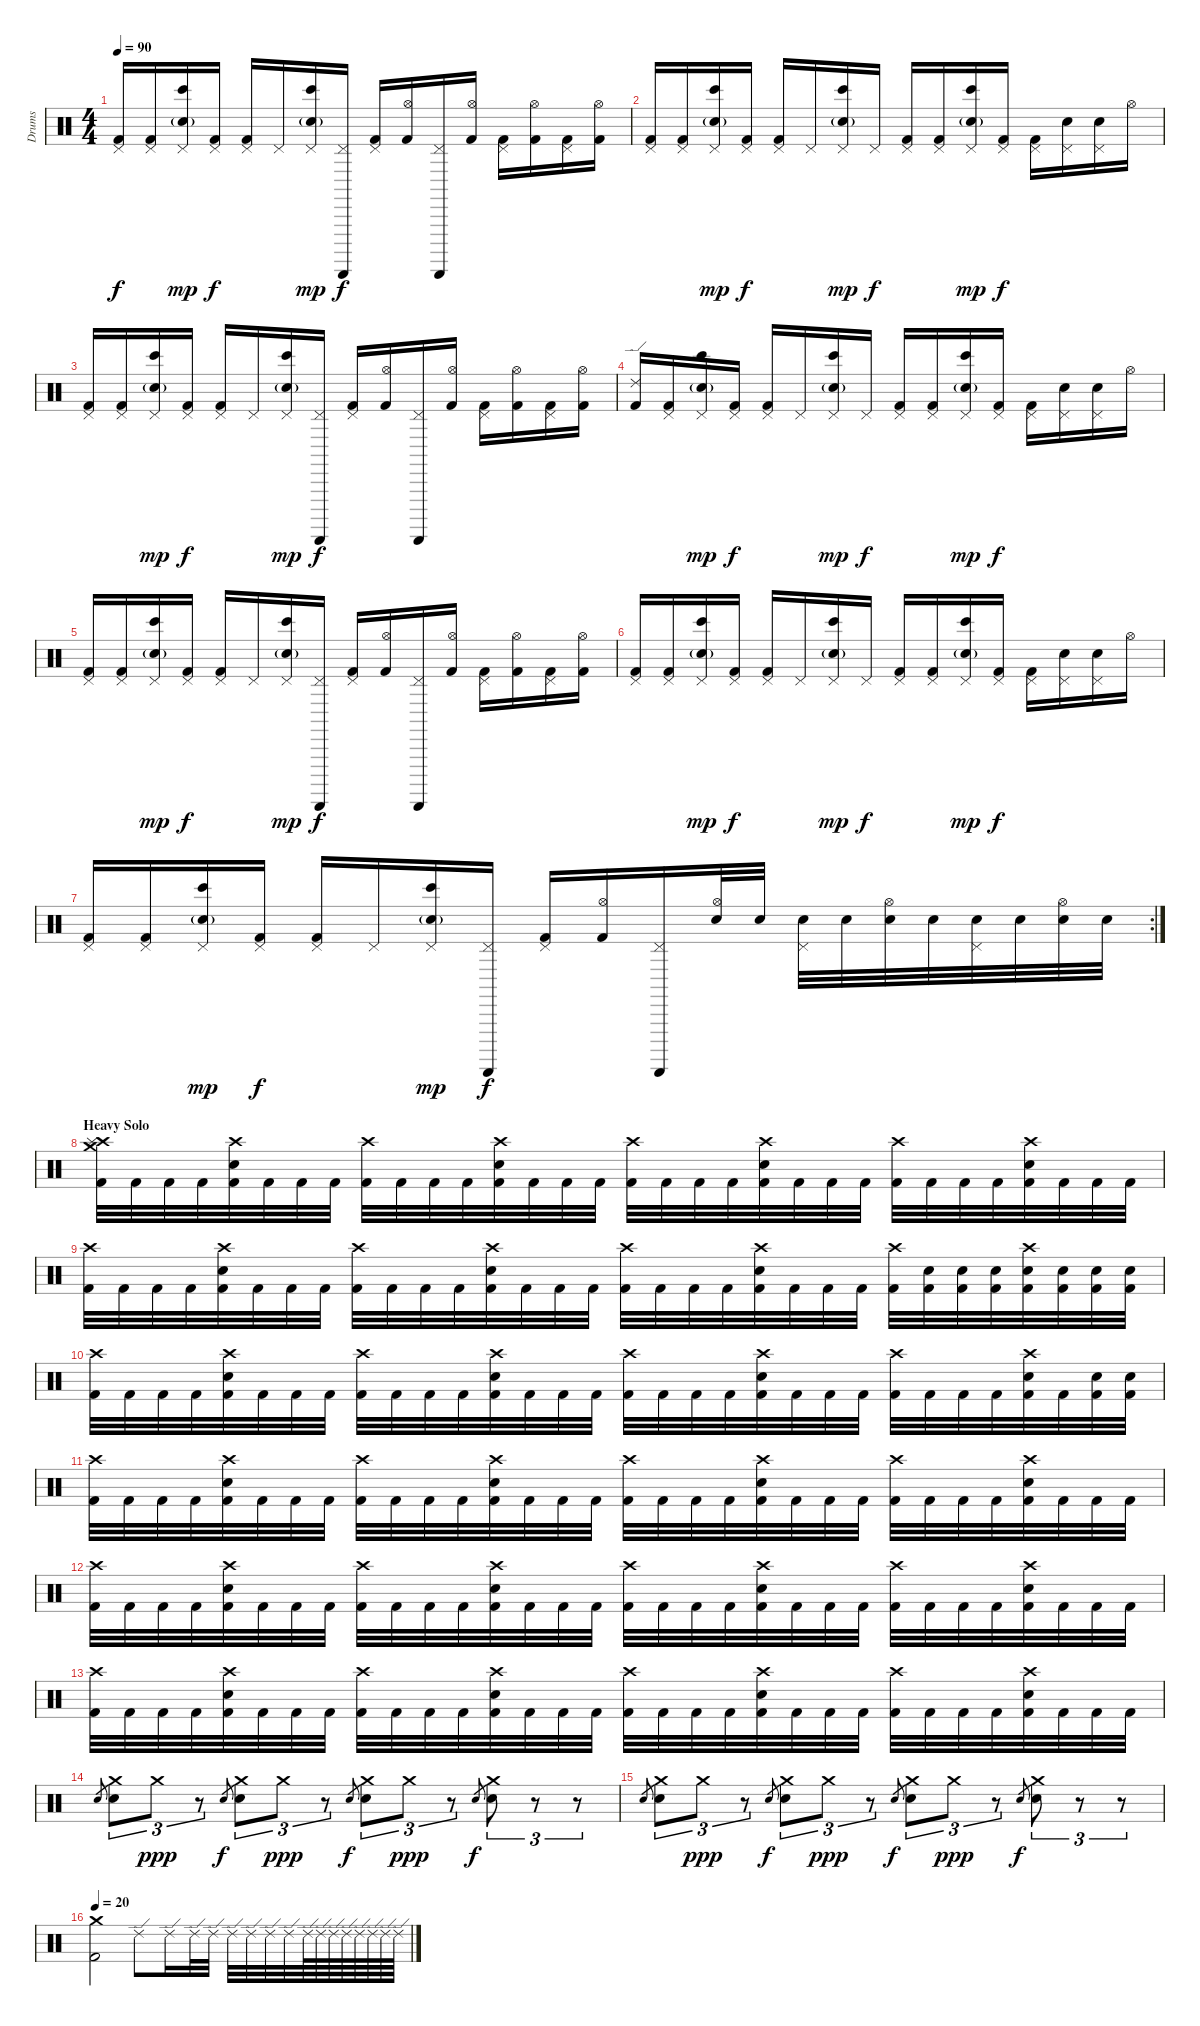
\track ("Drums" "Drums") {instrument percussion}
\staff {score}
\articulation defaults
\ts (4 4)
\tempo 90
\clef neutral
\ks c
("Pedal Hi-Hat (hit)" "Kick (hit) 2").16{dy f} ("Pedal Hi-Hat (hit)" "Kick (hit) 2").16 ("Pedal Hi-Hat (hit)" "Bongo High (hit)" "Electric Snare (hit)"{g}).16{dy mp} ("Pedal Hi-Hat (hit)" "Kick (hit) 2").16{dy f} ("Pedal Hi-Hat (hit)" "Kick (hit) 2").16 "Pedal Hi-Hat (hit)".16 ("Pedal Hi-Hat (hit)" "Bongo High (hit)" "Electric Snare (hit)"{g}).16{dy mp} ("Pedal Hi-Hat (hit)" "Guiro (scrap-return)").16{dy f} ("Pedal Hi-Hat (hit)" "Kick (hit) 2").16 ("Hi-Hat (open)" "Kick (hit) 2").16 ("Pedal Hi-Hat (hit)" "Guiro (scrap-return)").16 ("Hi-Hat (open)" "Kick (hit) 2").16 ("Pedal Hi-Hat (hit)" "Kick (hit) 2").16 ("Hi-Hat (open)" "Kick (hit) 2").16 ("Pedal Hi-Hat (hit)" "Kick (hit) 2").16 ("Hi-Hat (open)" "Kick (hit) 2").16 |
("Pedal Hi-Hat (hit)" "Kick (hit) 2").16 ("Pedal Hi-Hat (hit)" "Kick (hit) 2").16 ("Pedal Hi-Hat (hit)" "Bongo High (hit)" "Electric Snare (hit)"{g}).16{dy mp} ("Pedal Hi-Hat (hit)" "Kick (hit) 2").16{dy f} ("Pedal Hi-Hat (hit)" "Kick (hit) 2").16 "Pedal Hi-Hat (hit)".16 ("Pedal Hi-Hat (hit)" "Bongo High (hit)" "Electric Snare (hit)"{g}).16{dy mp} "Pedal Hi-Hat (hit)".16{dy f} ("Pedal Hi-Hat (hit)" "Kick (hit) 2").16 ("Pedal Hi-Hat (hit)" "Kick (hit) 2").16 ("Pedal Hi-Hat (hit)" "Bongo High (hit)" "Electric Snare (hit)"{g}).16{dy mp} ("Pedal Hi-Hat (hit)" "Kick (hit) 2").16{dy f} ("Pedal Hi-Hat (hit)" "Kick (hit) 2").16 ("Pedal Hi-Hat (hit)" "Electric Snare (hit)").16 ("Pedal Hi-Hat (hit)" "Electric Snare (hit)").16 "Hi-Hat (open)".16 |
("Pedal Hi-Hat (hit)" "Kick (hit) 2").16 ("Pedal Hi-Hat (hit)" "Kick (hit) 2").16 ("Pedal Hi-Hat (hit)" "Bongo High (hit)" "Electric Snare (hit)"{g}).16{dy mp} ("Pedal Hi-Hat (hit)" "Kick (hit) 2").16{dy f} ("Pedal Hi-Hat (hit)" "Kick (hit) 2").16 "Pedal Hi-Hat (hit)".16 ("Pedal Hi-Hat (hit)" "Bongo High (hit)" "Electric Snare (hit)"{g}).16{dy mp} ("Pedal Hi-Hat (hit)" "Guiro (scrap-return)").16{dy f} ("Pedal Hi-Hat (hit)" "Kick (hit) 2").16 ("Hi-Hat (open)" "Kick (hit) 2").16 ("Pedal Hi-Hat (hit)" "Guiro (scrap-return)").16 ("Hi-Hat (open)" "Kick (hit) 2").16 ("Pedal Hi-Hat (hit)" "Kick (hit) 2").16 ("Hi-Hat (open)" "Kick (hit) 2").16 ("Pedal Hi-Hat (hit)" "Kick (hit) 2").16 ("Hi-Hat (open)" "Kick (hit) 2").16 |
("Ride (edge) 2" "Kick (hit) 2").16 ("Pedal Hi-Hat (hit)" "Kick (hit) 2").16 ("Pedal Hi-Hat (hit)" "Bongo High (hit)" "Electric Snare (hit)"{g}).16{dy mp} ("Pedal Hi-Hat (hit)" "Kick (hit) 2").16{dy f} ("Pedal Hi-Hat (hit)" "Kick (hit) 2").16 "Pedal Hi-Hat (hit)".16 ("Pedal Hi-Hat (hit)" "Bongo High (hit)" "Electric Snare (hit)"{g}).16{dy mp} "Pedal Hi-Hat (hit)".16{dy f} ("Pedal Hi-Hat (hit)" "Kick (hit) 2").16 ("Pedal Hi-Hat (hit)" "Kick (hit) 2").16 ("Pedal Hi-Hat (hit)" "Bongo High (hit)" "Electric Snare (hit)"{g}).16{dy mp} ("Pedal Hi-Hat (hit)" "Kick (hit) 2").16{dy f} ("Pedal Hi-Hat (hit)" "Kick (hit) 2").16 ("Pedal Hi-Hat (hit)" "Electric Snare (hit)").16 ("Pedal Hi-Hat (hit)" "Electric Snare (hit)").16 "Hi-Hat (open)".16 |
("Pedal Hi-Hat (hit)" "Kick (hit) 2").16 ("Pedal Hi-Hat (hit)" "Kick (hit) 2").16 ("Pedal Hi-Hat (hit)" "Bongo High (hit)" "Electric Snare (hit)"{g}).16{dy mp} ("Pedal Hi-Hat (hit)" "Kick (hit) 2").16{dy f} ("Pedal Hi-Hat (hit)" "Kick (hit) 2").16 "Pedal Hi-Hat (hit)".16 ("Pedal Hi-Hat (hit)" "Bongo High (hit)" "Electric Snare (hit)"{g}).16{dy mp} ("Pedal Hi-Hat (hit)" "Guiro (scrap-return)").16{dy f} ("Pedal Hi-Hat (hit)" "Kick (hit) 2").16 ("Hi-Hat (open)" "Kick (hit) 2").16 ("Pedal Hi-Hat (hit)" "Guiro (scrap-return)").16 ("Hi-Hat (open)" "Kick (hit) 2").16 ("Pedal Hi-Hat (hit)" "Kick (hit) 2").16 ("Hi-Hat (open)" "Kick (hit) 2").16 ("Pedal Hi-Hat (hit)" "Kick (hit) 2").16 ("Hi-Hat (open)" "Kick (hit) 2").16 |
("Pedal Hi-Hat (hit)" "Kick (hit) 2").16 ("Pedal Hi-Hat (hit)" "Kick (hit) 2").16 ("Pedal Hi-Hat (hit)" "Bongo High (hit)" "Electric Snare (hit)"{g}).16{dy mp} ("Pedal Hi-Hat (hit)" "Kick (hit) 2").16{dy f} ("Pedal Hi-Hat (hit)" "Kick (hit) 2").16 "Pedal Hi-Hat (hit)".16 ("Pedal Hi-Hat (hit)" "Bongo High (hit)" "Electric Snare (hit)"{g}).16{dy mp} "Pedal Hi-Hat (hit)".16{dy f} ("Pedal Hi-Hat (hit)" "Kick (hit) 2").16 ("Pedal Hi-Hat (hit)" "Kick (hit) 2").16 ("Pedal Hi-Hat (hit)" "Bongo High (hit)" "Electric Snare (hit)"{g}).16{dy mp} ("Pedal Hi-Hat (hit)" "Kick (hit) 2").16{dy f} ("Pedal Hi-Hat (hit)" "Kick (hit) 2").16 ("Pedal Hi-Hat (hit)" "Electric Snare (hit)").16 ("Pedal Hi-Hat (hit)" "Electric Snare (hit)").16 "Hi-Hat (open)".16 |
\rc 2
("Pedal Hi-Hat (hit)" "Kick (hit) 2").16 ("Pedal Hi-Hat (hit)" "Kick (hit) 2").16 ("Pedal Hi-Hat (hit)" "Bongo High (hit)" "Electric Snare (hit)"{g}).16{dy mp} ("Pedal Hi-Hat (hit)" "Kick (hit) 2").16{dy f} ("Pedal Hi-Hat (hit)" "Kick (hit) 2").16 "Pedal Hi-Hat (hit)".16 ("Pedal Hi-Hat (hit)" "Bongo High (hit)" "Electric Snare (hit)"{g}).16{dy mp} ("Pedal Hi-Hat (hit)" "Guiro (scrap-return)").16{dy f} ("Pedal Hi-Hat (hit)" "Kick (hit) 2").16 ("Hi-Hat (open)" "Kick (hit) 2").16 ("Pedal Hi-Hat (hit)" "Guiro (scrap-return)").16 ("Hi-Hat (open)" "Electric Snare (hit)").32 "Electric Snare (hit)".32 ("Pedal Hi-Hat (hit)" "Electric Snare (hit)").32 "Electric Snare (hit)".32 ("Hi-Hat (open)" "Electric Snare (hit)").32 "Electric Snare (hit)".32 ("Pedal Hi-Hat (hit)" "Electric Snare (hit)").32 "Electric Snare (hit)".32 ("Hi-Hat (open)" "Electric Snare (hit)").32 "Electric Snare (hit)".32 |
\section ("" "Heavy Solo")
("Crash high (hit)" "Crash medium (hit)" "Splash (hit)" "Kick (hit) 2").32 "Kick (hit) 2".32 "Kick (hit) 2".32 "Kick (hit) 2".32 ("Crash high (hit)" "Electric Snare (hit)" "Kick (hit) 2").32 "Kick (hit) 2".32 "Kick (hit) 2".32 "Kick (hit) 2".32 ("Crash high (hit)" "Kick (hit) 2").32 "Kick (hit) 2".32 "Kick (hit) 2".32 "Kick (hit) 2".32 ("Crash high (hit)" "Electric Snare (hit)" "Kick (hit) 2").32 "Kick (hit) 2".32 "Kick (hit) 2".32 "Kick (hit) 2".32 ("Crash high (hit)" "Kick (hit) 2").32 "Kick (hit) 2".32 "Kick (hit) 2".32 "Kick (hit) 2".32 ("Crash high (hit)" "Electric Snare (hit)" "Kick (hit) 2").32 "Kick (hit) 2".32 "Kick (hit) 2".32 "Kick (hit) 2".32 ("Crash high (hit)" "Kick (hit) 2").32 "Kick (hit) 2".32 "Kick (hit) 2".32 "Kick (hit) 2".32 ("Crash high (hit)" "Electric Snare (hit)" "Kick (hit) 2").32 "Kick (hit) 2".32 "Kick (hit) 2".32 "Kick (hit) 2".32 |
("Crash high (hit)" "Kick (hit) 2").32 "Kick (hit) 2".32 "Kick (hit) 2".32 "Kick (hit) 2".32 ("Crash high (hit)" "Electric Snare (hit)" "Kick (hit) 2").32 "Kick (hit) 2".32 "Kick (hit) 2".32 "Kick (hit) 2".32 ("Crash high (hit)" "Kick (hit) 2").32 "Kick (hit) 2".32 "Kick (hit) 2".32 "Kick (hit) 2".32 ("Crash high (hit)" "Electric Snare (hit)" "Kick (hit) 2").32 "Kick (hit) 2".32 "Kick (hit) 2".32 "Kick (hit) 2".32 ("Crash high (hit)" "Kick (hit) 2").32 "Kick (hit) 2".32 "Kick (hit) 2".32 "Kick (hit) 2".32 ("Crash high (hit)" "Electric Snare (hit)" "Kick (hit) 2").32 "Kick (hit) 2".32 "Kick (hit) 2".32 "Kick (hit) 2".32 ("Crash high (hit)" "Kick (hit) 2").32 ("Electric Snare (hit)" "Kick (hit) 2").32 ("Electric Snare (hit)" "Kick (hit) 2").32 ("Electric Snare (hit)" "Kick (hit) 2").32 ("Crash high (hit)" "Electric Snare (hit)" "Kick (hit) 2").32 ("Electric Snare (hit)" "Kick (hit) 2").32 ("Electric Snare (hit)" "Kick (hit) 2").32 ("Electric Snare (hit)" "Kick (hit) 2").32 |
("Crash high (hit)" "Kick (hit) 2").32 "Kick (hit) 2".32 "Kick (hit) 2".32 "Kick (hit) 2".32 ("Crash high (hit)" "Electric Snare (hit)" "Kick (hit) 2").32 "Kick (hit) 2".32 "Kick (hit) 2".32 "Kick (hit) 2".32 ("Crash high (hit)" "Kick (hit) 2").32 "Kick (hit) 2".32 "Kick (hit) 2".32 "Kick (hit) 2".32 ("Crash high (hit)" "Electric Snare (hit)" "Kick (hit) 2").32 "Kick (hit) 2".32 "Kick (hit) 2".32 "Kick (hit) 2".32 ("Crash high (hit)" "Kick (hit) 2").32 "Kick (hit) 2".32 "Kick (hit) 2".32 "Kick (hit) 2".32 ("Crash high (hit)" "Electric Snare (hit)" "Kick (hit) 2").32 "Kick (hit) 2".32 "Kick (hit) 2".32 "Kick (hit) 2".32 ("Crash high (hit)" "Kick (hit) 2").32 "Kick (hit) 2".32 "Kick (hit) 2".32 "Kick (hit) 2".32 ("Crash high (hit)" "Electric Snare (hit)" "Kick (hit) 2").32 "Kick (hit) 2".32 ("Electric Snare (hit)" "Kick (hit) 2").32 ("Electric Snare (hit)" "Kick (hit) 2").32 |
("Crash high (hit)" "Kick (hit) 2").32 "Kick (hit) 2".32 "Kick (hit) 2".32 "Kick (hit) 2".32 ("Crash high (hit)" "Electric Snare (hit)" "Kick (hit) 2").32 "Kick (hit) 2".32 "Kick (hit) 2".32 "Kick (hit) 2".32 ("Crash high (hit)" "Kick (hit) 2").32 "Kick (hit) 2".32 "Kick (hit) 2".32 "Kick (hit) 2".32 ("Crash high (hit)" "Electric Snare (hit)" "Kick (hit) 2").32 "Kick (hit) 2".32 "Kick (hit) 2".32 "Kick (hit) 2".32 ("Crash high (hit)" "Kick (hit) 2").32 "Kick (hit) 2".32 "Kick (hit) 2".32 "Kick (hit) 2".32 ("Crash high (hit)" "Electric Snare (hit)" "Kick (hit) 2").32 "Kick (hit) 2".32 "Kick (hit) 2".32 "Kick (hit) 2".32 ("Crash high (hit)" "Kick (hit) 2").32 "Kick (hit) 2".32 "Kick (hit) 2".32 "Kick (hit) 2".32 ("Crash high (hit)" "Electric Snare (hit)" "Kick (hit) 2").32 "Kick (hit) 2".32 "Kick (hit) 2".32 "Kick (hit) 2".32 |
("Crash high (hit)" "Kick (hit) 2").32 "Kick (hit) 2".32 "Kick (hit) 2".32 "Kick (hit) 2".32 ("Crash high (hit)" "Electric Snare (hit)" "Kick (hit) 2").32 "Kick (hit) 2".32 "Kick (hit) 2".32 "Kick (hit) 2".32 ("Crash high (hit)" "Kick (hit) 2").32 "Kick (hit) 2".32 "Kick (hit) 2".32 "Kick (hit) 2".32 ("Crash high (hit)" "Electric Snare (hit)" "Kick (hit) 2").32 "Kick (hit) 2".32 "Kick (hit) 2".32 "Kick (hit) 2".32 ("Crash high (hit)" "Kick (hit) 2").32 "Kick (hit) 2".32 "Kick (hit) 2".32 "Kick (hit) 2".32 ("Crash high (hit)" "Electric Snare (hit)" "Kick (hit) 2").32 "Kick (hit) 2".32 "Kick (hit) 2".32 "Kick (hit) 2".32 ("Crash high (hit)" "Kick (hit) 2").32 "Kick (hit) 2".32 "Kick (hit) 2".32 "Kick (hit) 2".32 ("Crash high (hit)" "Electric Snare (hit)" "Kick (hit) 2").32 "Kick (hit) 2".32 "Kick (hit) 2".32 "Kick (hit) 2".32 |
("Crash high (hit)" "Kick (hit) 2").32 "Kick (hit) 2".32 "Kick (hit) 2".32 "Kick (hit) 2".32 ("Crash high (hit)" "Electric Snare (hit)" "Kick (hit) 2").32 "Kick (hit) 2".32 "Kick (hit) 2".32 "Kick (hit) 2".32 ("Crash high (hit)" "Kick (hit) 2").32 "Kick (hit) 2".32 "Kick (hit) 2".32 "Kick (hit) 2".32 ("Crash high (hit)" "Electric Snare (hit)" "Kick (hit) 2").32 "Kick (hit) 2".32 "Kick (hit) 2".32 "Kick (hit) 2".32 ("Crash high (hit)" "Kick (hit) 2").32 "Kick (hit) 2".32 "Kick (hit) 2".32 "Kick (hit) 2".32 ("Crash high (hit)" "Electric Snare (hit)" "Kick (hit) 2").32 "Kick (hit) 2".32 "Kick (hit) 2".32 "Kick (hit) 2".32 ("Crash high (hit)" "Kick (hit) 2").32 "Kick (hit) 2".32 "Kick (hit) 2".32 "Kick (hit) 2".32 ("Crash high (hit)" "Electric Snare (hit)" "Kick (hit) 2").32 "Kick (hit) 2".32 "Kick (hit) 2".32 "Kick (hit) 2".32 |
"Electric Snare (hit)".8{gr} ("Crash medium (hit)" "Electric Snare (hit)").8{tu (3 2)} "Crash medium (hit)".8{tu (3 2) dy ppp} r.8{tu (3 2)} "Electric Snare (hit)".8{gr dy f} ("Crash medium (hit)" "Electric Snare (hit)").8{tu (3 2)} "Crash medium (hit)".8{tu (3 2) dy ppp} r.8{tu (3 2)} "Electric Snare (hit)".8{gr dy f} ("Crash medium (hit)" "Electric Snare (hit)").8{tu (3 2)} "Crash medium (hit)".8{tu (3 2) dy ppp} r.8{tu (3 2)} "Electric Snare (hit)".8{gr dy f} ("Crash medium (hit)" "Electric Snare (hit)").8{tu (3 2)} r.8{tu (3 2)} r.8{tu (3 2)} |
"Electric Snare (hit)".8{gr} ("Crash medium (hit)" "Electric Snare (hit)").8{tu (3 2)} "Crash medium (hit)".8{tu (3 2) dy ppp} r.8{tu (3 2)} "Electric Snare (hit)".8{gr dy f} ("Crash medium (hit)" "Electric Snare (hit)").8{tu (3 2)} "Crash medium (hit)".8{tu (3 2) dy ppp} r.8{tu (3 2)} "Electric Snare (hit)".8{gr dy f} ("Crash medium (hit)" "Electric Snare (hit)").8{tu (3 2)} "Crash medium (hit)".8{tu (3 2) dy ppp} r.8{tu (3 2)} "Electric Snare (hit)".8{gr dy f} ("Crash medium (hit)" "Electric Snare (hit)").8{tu (3 2)} r.8{tu (3 2)} r.8{tu (3 2)} |
\tempo 20
("Crash medium (hit)" "Kick (hit) 2").2 "Ride (edge) 2".8 "Ride (edge) 2".16 "Ride (edge) 2".32 "Ride (edge) 2".32 "Ride (edge) 2".32 "Ride (edge) 2".32 "Ride (edge) 2".32 "Ride (edge) 2".32 "Ride (edge) 2".64 "Ride (edge) 2".64 "Ride (edge) 2".64 "Ride (edge) 2".64 "Ride (edge) 2".64 "Ride (edge) 2".64 "Ride (edge) 2".64 "Ride (edge) 2".64
